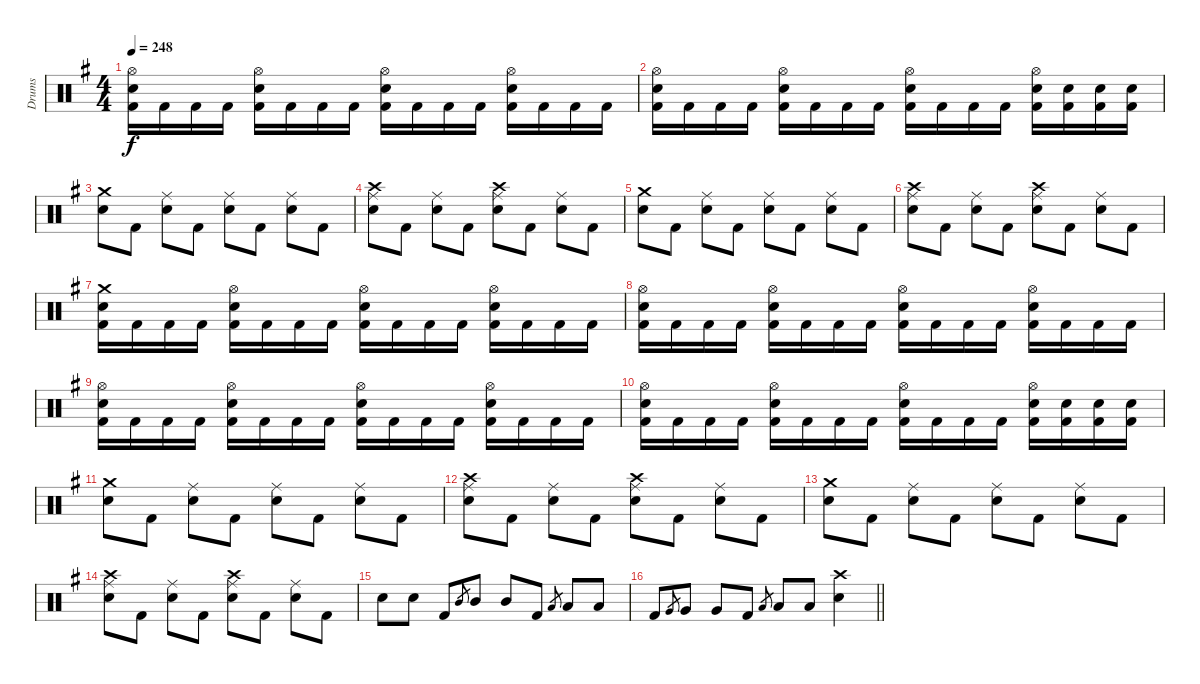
\track ("Drums" "Drums") {instrument percussion}
\staff {score}
\articulation defaults
\ts (4 4)
\tempo 248
\clef neutral
\ks g
("Hi-Hat (open)" "Snare (hit) 2" "Kick (hit) 2").16{dy f} "Kick (hit) 2".16 "Kick (hit) 2".16 "Kick (hit) 2".16 ("Hi-Hat (open)" "Snare (hit) 2" "Kick (hit) 2").16 "Kick (hit) 2".16 "Kick (hit) 2".16 "Kick (hit) 2".16 ("Hi-Hat (open)" "Snare (hit) 2" "Kick (hit) 2").16 "Kick (hit) 2".16 "Kick (hit) 2".16 "Kick (hit) 2".16 ("Hi-Hat (open)" "Snare (hit) 2" "Kick (hit) 2").16 "Kick (hit) 2".16 "Kick (hit) 2".16 "Kick (hit) 2".16 |
("Hi-Hat (open)" "Snare (hit) 2" "Kick (hit) 2").16 "Kick (hit) 2".16 "Kick (hit) 2".16 "Kick (hit) 2".16 ("Hi-Hat (open)" "Snare (hit) 2" "Kick (hit) 2").16 "Kick (hit) 2".16 "Kick (hit) 2".16 "Kick (hit) 2".16 ("Hi-Hat (open)" "Snare (hit) 2" "Kick (hit) 2").16 "Kick (hit) 2".16 "Kick (hit) 2".16 "Kick (hit) 2".16 ("Hi-Hat (open)" "Snare (hit) 2" "Kick (hit) 2").16 ("Snare (hit) 2" "Kick (hit) 2").16 ("Snare (hit) 2" "Kick (hit) 2").16 ("Snare (hit) 2" "Kick (hit) 2").16 |
("Crash medium (hit)" "Snare (hit) 2").8 "Kick (hit) 2".8 ("Ride (middle)" "Snare (hit) 2").8 "Kick (hit) 2".8 ("Ride (middle)" "Snare (hit) 2").8 "Kick (hit) 2".8 ("Ride (middle)" "Snare (hit) 2").8 "Kick (hit) 2".8 |
("Crash high (hit)" "Ride (middle)" "Snare (hit) 2").8 "Kick (hit) 2".8 ("Ride (middle)" "Snare (hit) 2").8 "Kick (hit) 2".8 ("Crash high (hit)" "Ride (middle)" "Snare (hit) 2").8 "Kick (hit) 2".8 ("Ride (middle)" "Snare (hit) 2").8 "Kick (hit) 2".8 |
("Crash medium (hit)" "Snare (hit) 2").8 "Kick (hit) 2".8 ("Ride (middle)" "Snare (hit) 2").8 "Kick (hit) 2".8 ("Ride (middle)" "Snare (hit) 2").8 "Kick (hit) 2".8 ("Ride (middle)" "Snare (hit) 2").8 "Kick (hit) 2".8 |
("Crash high (hit)" "Ride (middle)" "Snare (hit) 2").8 "Kick (hit) 2".8 ("Ride (middle)" "Snare (hit) 2").8 "Kick (hit) 2".8 ("Crash high (hit)" "Ride (middle)" "Snare (hit) 2").8 "Kick (hit) 2".8 ("Ride (middle)" "Snare (hit) 2").8 "Kick (hit) 2".8 |
("Crash medium (hit)" "Snare (hit) 2" "Kick (hit) 2").16 "Kick (hit) 2".16 "Kick (hit) 2".16 "Kick (hit) 2".16 ("Hi-Hat (open)" "Snare (hit) 2" "Kick (hit) 2").16 "Kick (hit) 2".16 "Kick (hit) 2".16 "Kick (hit) 2".16 ("Hi-Hat (open)" "Snare (hit) 2" "Kick (hit) 2").16 "Kick (hit) 2".16 "Kick (hit) 2".16 "Kick (hit) 2".16 ("Hi-Hat (open)" "Snare (hit) 2" "Kick (hit) 2").16 "Kick (hit) 2".16 "Kick (hit) 2".16 "Kick (hit) 2".16 |
("Hi-Hat (open)" "Snare (hit) 2" "Kick (hit) 2").16 "Kick (hit) 2".16 "Kick (hit) 2".16 "Kick (hit) 2".16 ("Hi-Hat (open)" "Snare (hit) 2" "Kick (hit) 2").16 "Kick (hit) 2".16 "Kick (hit) 2".16 "Kick (hit) 2".16 ("Hi-Hat (open)" "Snare (hit) 2" "Kick (hit) 2").16 "Kick (hit) 2".16 "Kick (hit) 2".16 "Kick (hit) 2".16 ("Hi-Hat (open)" "Snare (hit) 2" "Kick (hit) 2").16 "Kick (hit) 2".16 "Kick (hit) 2".16 "Kick (hit) 2".16 |
("Hi-Hat (open)" "Snare (hit) 2" "Kick (hit) 2").16 "Kick (hit) 2".16 "Kick (hit) 2".16 "Kick (hit) 2".16 ("Hi-Hat (open)" "Snare (hit) 2" "Kick (hit) 2").16 "Kick (hit) 2".16 "Kick (hit) 2".16 "Kick (hit) 2".16 ("Hi-Hat (open)" "Snare (hit) 2" "Kick (hit) 2").16 "Kick (hit) 2".16 "Kick (hit) 2".16 "Kick (hit) 2".16 ("Hi-Hat (open)" "Snare (hit) 2" "Kick (hit) 2").16 "Kick (hit) 2".16 "Kick (hit) 2".16 "Kick (hit) 2".16 |
("Hi-Hat (open)" "Snare (hit) 2" "Kick (hit) 2").16 "Kick (hit) 2".16 "Kick (hit) 2".16 "Kick (hit) 2".16 ("Hi-Hat (open)" "Snare (hit) 2" "Kick (hit) 2").16 "Kick (hit) 2".16 "Kick (hit) 2".16 "Kick (hit) 2".16 ("Hi-Hat (open)" "Snare (hit) 2" "Kick (hit) 2").16 "Kick (hit) 2".16 "Kick (hit) 2".16 "Kick (hit) 2".16 ("Hi-Hat (open)" "Snare (hit) 2" "Kick (hit) 2").16 ("Snare (hit) 2" "Kick (hit) 2").16 ("Snare (hit) 2" "Kick (hit) 2").16 ("Snare (hit) 2" "Kick (hit) 2").16 |
("Crash medium (hit)" "Snare (hit) 2").8 "Kick (hit) 2".8 ("Ride (middle)" "Snare (hit) 2").8 "Kick (hit) 2".8 ("Ride (middle)" "Snare (hit) 2").8 "Kick (hit) 2".8 ("Ride (middle)" "Snare (hit) 2").8 "Kick (hit) 2".8 |
("Crash high (hit)" "Ride (middle)" "Snare (hit) 2").8 "Kick (hit) 2".8 ("Ride (middle)" "Snare (hit) 2").8 "Kick (hit) 2".8 ("Crash high (hit)" "Ride (middle)" "Snare (hit) 2").8 "Kick (hit) 2".8 ("Ride (middle)" "Snare (hit) 2").8 "Kick (hit) 2".8 |
("Crash medium (hit)" "Snare (hit) 2").8 "Kick (hit) 2".8 ("Ride (middle)" "Snare (hit) 2").8 "Kick (hit) 2".8 ("Ride (middle)" "Snare (hit) 2").8 "Kick (hit) 2".8 ("Ride (middle)" "Snare (hit) 2").8 "Kick (hit) 2".8 |
("Crash high (hit)" "Ride (middle)" "Snare (hit) 2").8 "Kick (hit) 2".8 ("Ride (middle)" "Snare (hit) 2").8 "Kick (hit) 2".8 ("Crash high (hit)" "Ride (middle)" "Snare (hit) 2").8 "Kick (hit) 2".8 ("Ride (middle)" "Snare (hit) 2").8 "Kick (hit) 2".8 |
"Snare (hit) 2".8 "Snare (hit) 2".8 "Kick (hit) 2".8 "Mid Tom (hit)".8{gr} "Mid Tom (hit)".8 "Mid Tom (hit)".8 "Kick (hit) 2".8 "Low Tom (hit)".8{gr} "Low Tom (hit)".8 "Low Tom (hit)".8 |
\barLineRight lightlight "Kick (hit) 2".8 "Very Low Tom (hit)".8{gr} "Very Low Tom (hit)".8 "Very Low Tom (hit)".8 "Kick (hit) 2".8 "Low Floor Tom (hit)".8{gr} "Low Floor Tom (hit)".8 "Low Floor Tom (hit)".8
("Crash high (hit)" "Snare (hit) 2").4
